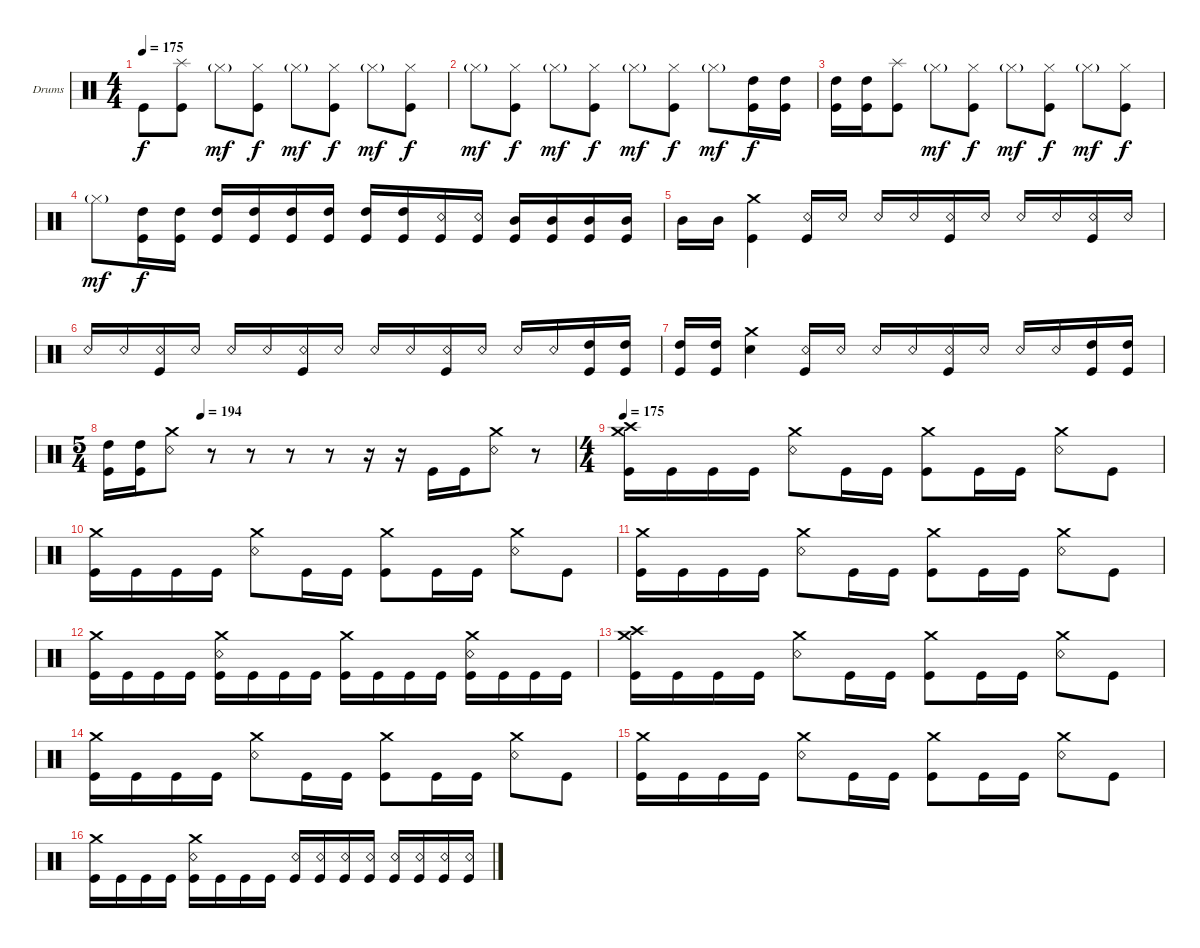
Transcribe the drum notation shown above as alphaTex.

\bracketExtendMode groupsimilarinstruments
\firstSystemTrackNameOrientation horizontal
\otherSystemsTrackNameOrientation horizontal
\track ("Drumkit" "Drums") {instrument percussion}
\staff {score}
\articulation defaults
\ts (4 4)
\tempo 175
\clef neutral
\ks c "Kick (hit)".8{dy f}
("Splash (hit)" "Kick (hit)").8 "Hi-Hat (closed)"{g}.8{dy mf} ("Hi-Hat (closed)" "Kick (hit)").8{dy f} "Hi-Hat (closed)"{g}.8{dy mf} ("Hi-Hat (closed)" "Kick (hit)").8{dy f} "Hi-Hat (closed)"{g}.8{dy mf} ("Hi-Hat (closed)" "Kick (hit)").8{dy f} |
"Hi-Hat (closed)"{g}.8{dy mf} ("Hi-Hat (closed)" "Kick (hit)").8{dy f} "Hi-Hat (closed)"{g}.8{dy mf} ("Hi-Hat (closed)" "Kick (hit)").8{dy f} "Hi-Hat (closed)"{g}.8{dy mf} ("Hi-Hat (closed)" "Kick (hit)").8{dy f} "Hi-Hat (closed)"{g}.8{dy mf} ("High Tom (hit)" "Kick (hit)").16{dy f} ("High Tom (hit)" "Kick (hit)").16 |
("High Tom (hit)" "Kick (hit)").16 ("High Tom (hit)" "Kick (hit)").16 ("Splash (hit)" "Kick (hit)").8 "Hi-Hat (closed)"{g}.8{dy mf} ("Hi-Hat (closed)" "Kick (hit)").8{dy f} "Hi-Hat (closed)"{g}.8{dy mf} ("Hi-Hat (closed)" "Kick (hit)").8{dy f} "Hi-Hat (closed)"{g}.8{dy mf} ("Hi-Hat (closed)" "Kick (hit)").8{dy f} |
"Hi-Hat (closed)"{g}.8{dy mf} ("High Tom (hit)" "Kick (hit)").16{dy f} ("High Tom (hit)" "Kick (hit)").16 ("High Tom (hit)" "Kick (hit)").16 ("High Tom (hit)" "Kick (hit)").16 ("High Tom (hit)" "Kick (hit)").16 ("High Tom (hit)" "Kick (hit)").16 ("High Tom (hit)" "Kick (hit)").16 ("High Tom (hit)" "Kick (hit)").16 ("Snare (rim shot)" "Kick (hit)").16 ("Snare (rim shot)" "Kick (hit)").16 ("Mid Tom (hit)" "Kick (hit)").16 ("Mid Tom (hit)" "Kick (hit)").16 ("Mid Tom (hit)" "Kick (hit)").16 ("Mid Tom (hit)" "Kick (hit)").16 |
"Mid Tom (hit)".16 "Mid Tom (hit)".16 ("Crash medium (hit)" "Kick (hit)").4 ("Snare (rim shot)" "Kick (hit)").16 "Snare (rim shot)".16 "Snare (rim shot)".16 "Snare (rim shot)".16 ("Snare (rim shot)" "Kick (hit)").16 "Snare (rim shot)".16 "Snare (rim shot)".16 "Snare (rim shot)".16 ("Snare (rim shot)" "Kick (hit)").16 "Snare (rim shot)".16 |
"Snare (rim shot)".16 "Snare (rim shot)".16 ("Snare (rim shot)" "Kick (hit)").16 "Snare (rim shot)".16 "Snare (rim shot)".16 "Snare (rim shot)".16 ("Snare (rim shot)" "Kick (hit)").16 "Snare (rim shot)".16 "Snare (rim shot)".16 "Snare (rim shot)".16 ("Snare (rim shot)" "Kick (hit)").16 "Snare (rim shot)".16 "Snare (rim shot)".16 "Snare (rim shot)".16 ("High Tom (hit)" "Kick (hit)").16 ("High Tom (hit)" "Kick (hit)").16 |
("High Tom (hit)" "Kick (hit)").16 ("High Tom (hit)" "Kick (hit)").16 ("Crash medium (hit)" "Snare (hit) 2").4 ("Snare (rim shot)" "Kick (hit)").16 "Snare (rim shot)".16 "Snare (rim shot)".16 "Snare (rim shot)".16 ("Snare (rim shot)" "Kick (hit)").16 "Snare (rim shot)".16 "Snare (rim shot)".16 "Snare (rim shot)".16 ("High Tom (hit)" "Kick (hit)").16 ("High Tom (hit)" "Kick (hit)").16 |
\ts (5 4)
\beaming (8 6 4)
\tempo (194 0.2)
("High Tom (hit)" "Kick (hit)").16 ("High Tom (hit)" "Kick (hit)").16 ("Crash medium (hit)" "Snare (rim shot)").8 r.8 r.8 r.8 r.8 r.16 r.16 "Kick (hit)".16 "Kick (hit)".16 ("Crash medium (hit)" "Snare (rim shot)").8 r.8 |
\ts (4 4)
\beaming (8 2 2 2 2)
\tempo 175
("Crash high (hit)" "Crash medium (hit)" "Kick (hit)").16 "Kick (hit)".16 "Kick (hit)".16 "Kick (hit)".16 ("Crash medium (hit)" "Snare (rim shot)").8 "Kick (hit)".16 "Kick (hit)".16 ("Crash medium (hit)" "Kick (hit)").8 "Kick (hit)".16 "Kick (hit)".16 ("Crash medium (hit)" "Snare (rim shot)").8 "Kick (hit)".8 |
("Crash medium (hit)" "Kick (hit)").16 "Kick (hit)".16 "Kick (hit)".16 "Kick (hit)".16 ("Crash medium (hit)" "Snare (rim shot)").8 "Kick (hit)".16 "Kick (hit)".16 ("Crash medium (hit)" "Kick (hit)").8 "Kick (hit)".16 "Kick (hit)".16 ("Crash medium (hit)" "Snare (rim shot)").8 "Kick (hit)".8 |
("Crash medium (hit)" "Kick (hit)").16 "Kick (hit)".16 "Kick (hit)".16 "Kick (hit)".16 ("Crash medium (hit)" "Snare (rim shot)").8 "Kick (hit)".16 "Kick (hit)".16 ("Crash medium (hit)" "Kick (hit)").8 "Kick (hit)".16 "Kick (hit)".16 ("Crash medium (hit)" "Snare (rim shot)").8 "Kick (hit)".8 |
("Crash medium (hit)" "Kick (hit)").16 "Kick (hit)".16 "Kick (hit)".16 "Kick (hit)".16 ("Crash medium (hit)" "Snare (rim shot)" "Kick (hit)").16 "Kick (hit)".16 "Kick (hit)".16 "Kick (hit)".16 ("Crash medium (hit)" "Kick (hit)").16 "Kick (hit)".16 "Kick (hit)".16 "Kick (hit)".16 ("Crash medium (hit)" "Snare (rim shot)" "Kick (hit)").16 "Kick (hit)".16 "Kick (hit)".16 "Kick (hit)".16 |
("Crash high (hit)" "Crash medium (hit)" "Kick (hit)").16 "Kick (hit)".16 "Kick (hit)".16 "Kick (hit)".16 ("Crash medium (hit)" "Snare (rim shot)").8 "Kick (hit)".16 "Kick (hit)".16 ("Crash medium (hit)" "Kick (hit)").8 "Kick (hit)".16 "Kick (hit)".16 ("Crash medium (hit)" "Snare (rim shot)").8 "Kick (hit)".8 |
("Crash medium (hit)" "Kick (hit)").16 "Kick (hit)".16 "Kick (hit)".16 "Kick (hit)".16 ("Crash medium (hit)" "Snare (rim shot)").8 "Kick (hit)".16 "Kick (hit)".16 ("Crash medium (hit)" "Kick (hit)").8 "Kick (hit)".16 "Kick (hit)".16 ("Crash medium (hit)" "Snare (rim shot)").8 "Kick (hit)".8 |
("Crash medium (hit)" "Kick (hit)").16 "Kick (hit)".16 "Kick (hit)".16 "Kick (hit)".16 ("Crash medium (hit)" "Snare (rim shot)").8 "Kick (hit)".16 "Kick (hit)".16 ("Crash medium (hit)" "Kick (hit)").8 "Kick (hit)".16 "Kick (hit)".16 ("Crash medium (hit)" "Snare (rim shot)").8 "Kick (hit)".8 |
("Crash medium (hit)" "Kick (hit)").16 "Kick (hit)".16 "Kick (hit)".16 "Kick (hit)".16 ("Crash medium (hit)" "Snare (rim shot)" "Kick (hit)").16 "Kick (hit)".16 "Kick (hit)".16 "Kick (hit)".16 ("Snare (rim shot)" "Kick (hit)").16 ("Snare (rim shot)" "Kick (hit)").16 ("Snare (rim shot)" "Kick (hit)").16 ("Snare (rim shot)" "Kick (hit)").16 ("Snare (rim shot)" "Kick (hit)").16 ("Snare (rim shot)" "Kick (hit)").16 ("Snare (rim shot)" "Kick (hit)").16 ("Snare (rim shot)" "Kick (hit)").16
